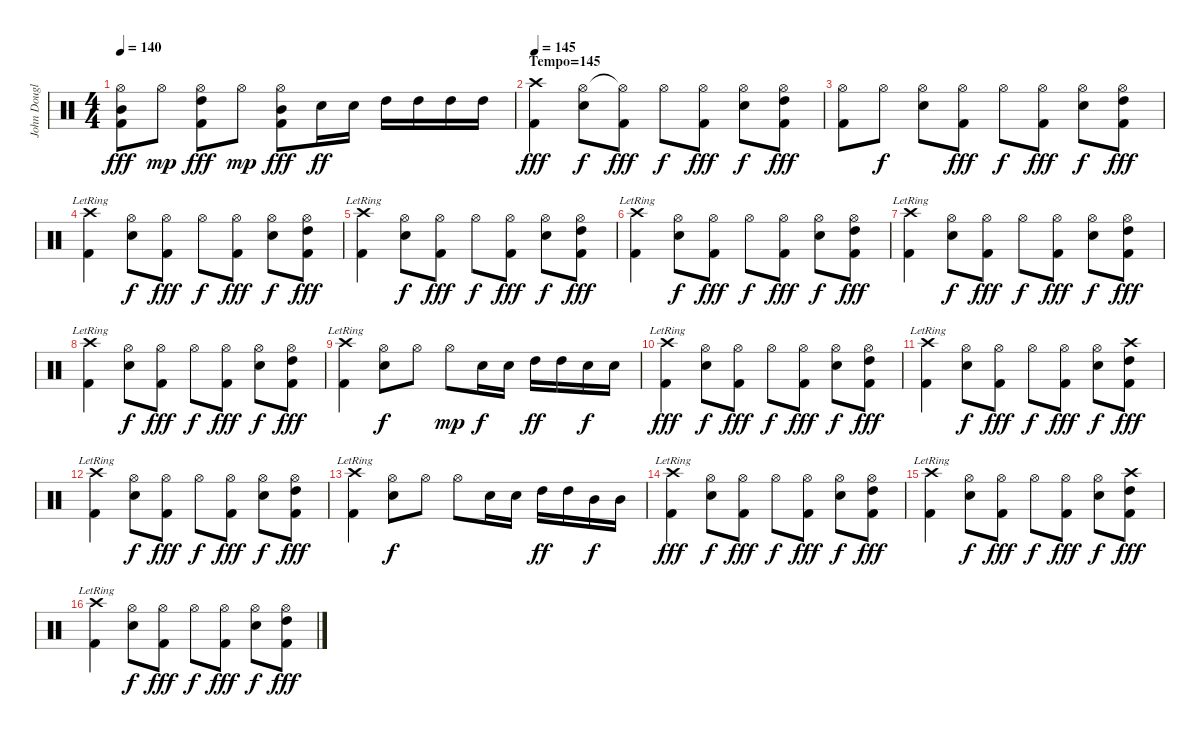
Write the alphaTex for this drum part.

\track ("John Douglas (Drums)" "John Dougl") {instrument percussion}
\staff {score}
\articulation defaults
\ts (4 4)
\tempo 140
\clef neutral
\ks c
("Hi-Hat (open)" "Mid Tom (hit)" "Kick (hit) 2").8{dy fff} "Hi-Hat (open)".8{dy mp} ("Hi-Hat (open)" "High Tom (hit)" "Kick (hit) 2").8{dy fff} "Hi-Hat (open)".8{dy mp} ("Hi-Hat (open)" "Mid Tom (hit)" "Kick (hit) 2").8{dy fff} "Snare (hit) 2".16{dy ff} "Snare (hit) 2".16 "High Tom (hit)".16 "High Tom (hit)".16 "High Tom (hit)".16 "High Tom (hit)".16 |
\section ("" "Tempo=145")
\tempo 145
("Crash high (hit)" "Kick (hit) 2").4{dy fff} ("Hi-Hat (open)" "Snare (hit) 2").8{dy f} ("Hi-Hat (open)"{t} "Kick (hit) 2").8{dy fff} "Hi-Hat (open)".8{dy f} ("Hi-Hat (open)" "Kick (hit) 2").8{dy fff} ("Hi-Hat (open)" "Snare (hit) 2").8{dy f} ("Hi-Hat (open)" "High Tom (hit)" "Kick (hit) 2").8{dy fff} |
("Hi-Hat (open)" "Kick (hit) 2").8 "Hi-Hat (open)".8{dy f} ("Hi-Hat (open)" "Snare (hit) 2").8 ("Hi-Hat (open)" "Kick (hit) 2").8{dy fff} "Hi-Hat (open)".8{dy f} ("Hi-Hat (open)" "Kick (hit) 2").8{dy fff} ("Hi-Hat (open)" "Snare (hit) 2").8{dy f} ("Hi-Hat (open)" "High Tom (hit)" "Kick (hit) 2").8{dy fff} |
("Crash high (hit)"{lr} "Kick (hit) 2").4 ("Hi-Hat (open)" "Snare (hit) 2").8{dy f} ("Hi-Hat (open)" "Kick (hit) 2").8{dy fff} "Hi-Hat (open)".8{dy f} ("Hi-Hat (open)" "Kick (hit) 2").8{dy fff} ("Hi-Hat (open)" "Snare (hit) 2").8{dy f} ("Hi-Hat (open)" "High Tom (hit)" "Kick (hit) 2").8{dy fff} |
("Crash high (hit)"{lr} "Kick (hit) 2").4 ("Hi-Hat (open)" "Snare (hit) 2").8{dy f} ("Hi-Hat (open)" "Kick (hit) 2").8{dy fff} "Hi-Hat (open)".8{dy f} ("Hi-Hat (open)" "Kick (hit) 2").8{dy fff} ("Hi-Hat (open)" "Snare (hit) 2").8{dy f} ("Hi-Hat (open)" "High Tom (hit)" "Kick (hit) 2").8{dy fff} |
("Crash high (hit)"{lr} "Kick (hit) 2").4 ("Hi-Hat (open)" "Snare (hit) 2").8{dy f} ("Hi-Hat (open)" "Kick (hit) 2").8{dy fff} "Hi-Hat (open)".8{dy f} ("Hi-Hat (open)" "Kick (hit) 2").8{dy fff} ("Hi-Hat (open)" "Snare (hit) 2").8{dy f} ("Hi-Hat (open)" "High Tom (hit)" "Kick (hit) 2").8{dy fff} |
("Crash high (hit)"{lr} "Kick (hit) 2").4 ("Hi-Hat (open)" "Snare (hit) 2").8{dy f} ("Hi-Hat (open)" "Kick (hit) 2").8{dy fff} "Hi-Hat (open)".8{dy f} ("Hi-Hat (open)" "Kick (hit) 2").8{dy fff} ("Hi-Hat (open)" "Snare (hit) 2").8{dy f} ("Hi-Hat (open)" "High Tom (hit)" "Kick (hit) 2").8{dy fff} |
("Crash high (hit)"{lr} "Kick (hit) 2").4 ("Hi-Hat (open)" "Snare (hit) 2").8{dy f} ("Hi-Hat (open)" "Kick (hit) 2").8{dy fff} "Hi-Hat (open)".8{dy f} ("Hi-Hat (open)" "Kick (hit) 2").8{dy fff} ("Hi-Hat (open)" "Snare (hit) 2").8{dy f} ("Hi-Hat (open)" "High Tom (hit)" "Kick (hit) 2").8{dy fff} |
("Crash high (hit)"{lr} "Kick (hit) 2").4 ("Hi-Hat (open)" "Snare (hit) 2").8{dy f} "Hi-Hat (open)".8 "Hi-Hat (open)".8{dy mp} "Snare (hit) 2".16{dy f} "Snare (hit) 2".16 "High Tom (hit)".16{dy ff} "High Tom (hit)".16 "Snare (hit) 2".16{dy f} "Snare (hit) 2".16 |
("Crash high (hit)"{lr} "Kick (hit) 2").4{dy fff} ("Hi-Hat (open)" "Snare (hit) 2").8{dy f} ("Hi-Hat (open)" "Kick (hit) 2").8{dy fff} "Hi-Hat (open)".8{dy f} ("Hi-Hat (open)" "Kick (hit) 2").8{dy fff} ("Hi-Hat (open)" "Snare (hit) 2").8{dy f} ("Hi-Hat (open)" "High Tom (hit)" "Kick (hit) 2").8{dy fff} |
("Crash high (hit)"{lr} "Kick (hit) 2").4 ("Hi-Hat (open)" "Snare (hit) 2").8{dy f} ("Hi-Hat (open)" "Kick (hit) 2").8{dy fff} "Hi-Hat (open)".8{dy f} ("Hi-Hat (open)" "Kick (hit) 2").8{dy fff} ("Hi-Hat (open)" "Snare (hit) 2").8{dy f} ("Crash high (hit)" "High Tom (hit)" "Kick (hit) 2").8{dy fff} |
("Crash high (hit)"{lr} "Kick (hit) 2").4 ("Hi-Hat (open)" "Snare (hit) 2").8{dy f} ("Hi-Hat (open)" "Kick (hit) 2").8{dy fff} "Hi-Hat (open)".8{dy f} ("Hi-Hat (open)" "Kick (hit) 2").8{dy fff} ("Hi-Hat (open)" "Snare (hit) 2").8{dy f} ("Hi-Hat (open)" "High Tom (hit)" "Kick (hit) 2").8{dy fff} |
("Crash high (hit)"{lr} "Kick (hit) 2").4 ("Hi-Hat (open)" "Snare (hit) 2").8{dy f} "Hi-Hat (open)".8 "Hi-Hat (open)".8 "Snare (hit) 2".16 "Snare (hit) 2".16 "High Tom (hit)".16{dy ff} "High Tom (hit)".16 "Mid Tom (hit)".16{dy f} "Mid Tom (hit)".16 |
("Crash high (hit)"{lr} "Kick (hit) 2").4{dy fff} ("Hi-Hat (open)" "Snare (hit) 2").8{dy f} ("Hi-Hat (open)" "Kick (hit) 2").8{dy fff} "Hi-Hat (open)".8{dy f} ("Hi-Hat (open)" "Kick (hit) 2").8{dy fff} ("Hi-Hat (open)" "Snare (hit) 2").8{dy f} ("Hi-Hat (open)" "High Tom (hit)" "Kick (hit) 2").8{dy fff} |
("Crash high (hit)"{lr} "Kick (hit) 2").4 ("Hi-Hat (open)" "Snare (hit) 2").8{dy f} ("Hi-Hat (open)" "Kick (hit) 2").8{dy fff} "Hi-Hat (open)".8{dy f} ("Hi-Hat (open)" "Kick (hit) 2").8{dy fff} ("Hi-Hat (open)" "Snare (hit) 2").8{dy f} ("Crash high (hit)" "High Tom (hit)" "Kick (hit) 2").8{dy fff} |
("Crash high (hit)"{lr} "Kick (hit) 2").4 ("Hi-Hat (open)" "Snare (hit) 2").8{dy f} ("Hi-Hat (open)" "Kick (hit) 2").8{dy fff} "Hi-Hat (open)".8{dy f} ("Hi-Hat (open)" "Kick (hit) 2").8{dy fff} ("Hi-Hat (open)" "Snare (hit) 2").8{dy f} ("Hi-Hat (open)" "High Tom (hit)" "Kick (hit) 2").8{dy fff}
